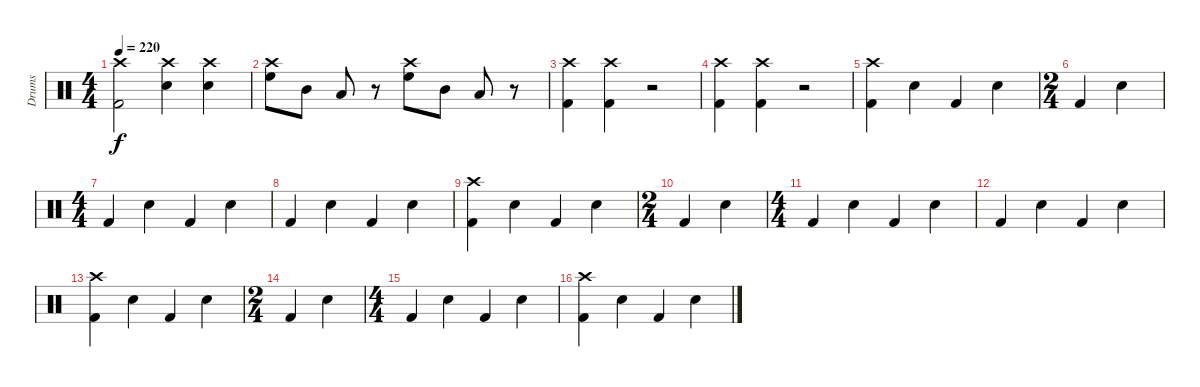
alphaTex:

\track ("Drums" "Drums") {instrument percussion}
\staff {score}
\articulation defaults
\ts (4 4)
\tempo 220
\clef neutral
\ks c
("Crash high (hit)" "Kick (hit) 2").2{dy f} ("Crash high (hit)" "Electric Snare (hit)").4 ("Crash high (hit)" "Electric Snare (hit)").4 |
("Crash high (hit)" "High Floor Tom (hit)").8 "Mid Tom (hit)".8 "Low Tom (hit)".8 r.8 ("Crash high (hit)" "High Floor Tom (hit)").8 "Mid Tom (hit)".8 "Low Tom (hit)".8 r.8 |
("Kick (hit) 2" "Crash high (hit)").4 ("Crash high (hit)" "Kick (hit) 2").4 r.2 |
("Kick (hit) 2" "Crash high (hit)").4 ("Crash high (hit)" "Kick (hit) 2").4 r.2 |
("Crash high (hit)" "Kick (hit) 2").4 "Electric Snare (hit)".4 "Kick (hit) 2".4 "Electric Snare (hit)".4 |
\ts (2 4)
"Kick (hit) 2".4 "Electric Snare (hit)".4 |
\ts (4 4)
"Kick (hit) 2".4 "Electric Snare (hit)".4 "Kick (hit) 2".4 "Electric Snare (hit)".4 |
"Kick (hit) 2".4 "Electric Snare (hit)".4 "Kick (hit) 2".4 "Electric Snare (hit)".4 |
("Crash high (hit)" "Kick (hit) 2").4 "Electric Snare (hit)".4 "Kick (hit) 2".4 "Electric Snare (hit)".4 |
\ts (2 4)
"Kick (hit) 2".4 "Electric Snare (hit)".4 |
\ts (4 4)
"Kick (hit) 2".4 "Electric Snare (hit)".4 "Kick (hit) 2".4 "Electric Snare (hit)".4 |
"Kick (hit) 2".4 "Electric Snare (hit)".4 "Kick (hit) 2".4 "Electric Snare (hit)".4 |
("Crash high (hit)" "Kick (hit) 2").4 "Electric Snare (hit)".4 "Kick (hit) 2".4 "Electric Snare (hit)".4 |
\ts (2 4)
"Kick (hit) 2".4 "Electric Snare (hit)".4 |
\ts (4 4)
"Kick (hit) 2".4 "Electric Snare (hit)".4 "Kick (hit) 2".4 "Electric Snare (hit)".4 |
("Kick (hit) 2" "Crash high (hit)").4 "Electric Snare (hit)".4 "Kick (hit) 2".4 "Electric Snare (hit)".4
